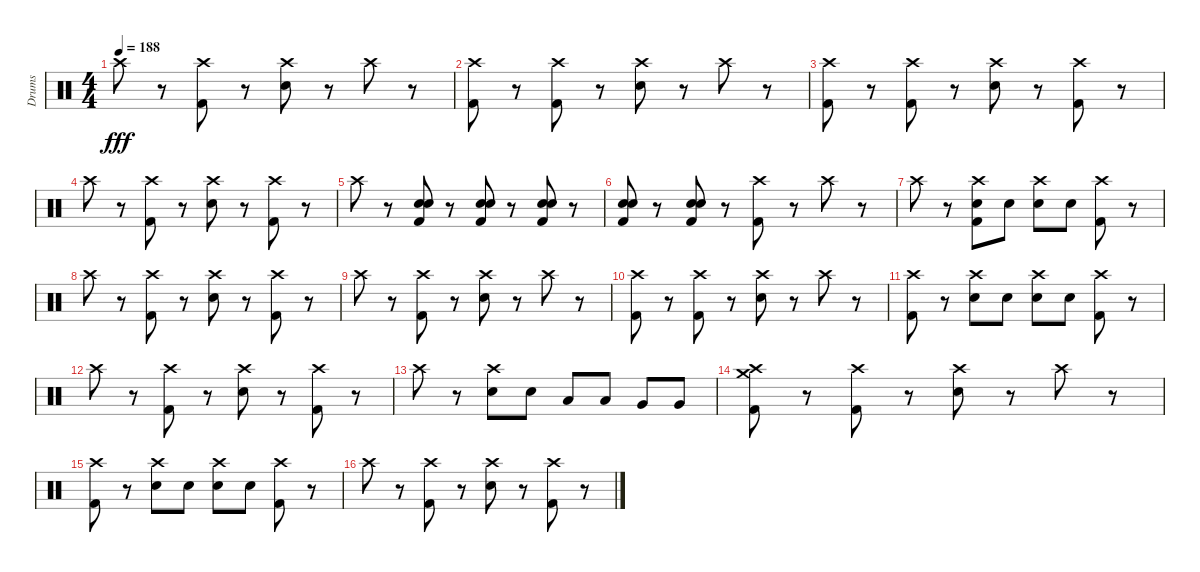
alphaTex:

\track ("Drums" "Drums") {instrument percussion}
\staff {score}
\articulation defaults
\ts (4 4)
\tempo 188
\clef neutral
\ks c "Crash high (hit)".8{dy fff}
r.8 ("Crash high (hit)" "Kick (hit) 2").8 r.8 ("Crash high (hit)" "Electric Snare (hit)").8 r.8 "Crash high (hit)".8 r.8 |
("Crash high (hit)" "Kick (hit) 2").8 r.8 ("Crash high (hit)" "Kick (hit) 2").8 r.8 ("Crash high (hit)" "Electric Snare (hit)").8 r.8 "Crash high (hit)".8 r.8 |
("Crash high (hit)" "Kick (hit) 2").8 r.8 ("Crash high (hit)" "Kick (hit) 2").8 r.8 ("Crash high (hit)" "Electric Snare (hit)").8 r.8 ("Crash high (hit)" "Kick (hit) 2").8 r.8 |
"Crash high (hit)".8 r.8 ("Crash high (hit)" "Kick (hit) 2").8 r.8 ("Crash high (hit)" "Electric Snare (hit)").8 r.8 ("Crash high (hit)" "Kick (hit) 2").8 r.8 |
"Crash high (hit)".8 r.8 ("Electric Snare (hit)" "Electric Snare (hit)" "Kick (hit) 2").8 r.8 ("Electric Snare (hit)" "Electric Snare (hit)" "Kick (hit) 2").8 r.8 ("Electric Snare (hit)" "Electric Snare (hit)" "Kick (hit) 2").8 r.8 |
("Electric Snare (hit)" "Electric Snare (hit)" "Kick (hit) 2").8 r.8 ("Electric Snare (hit)" "Electric Snare (hit)" "Kick (hit) 2").8 r.8 ("Crash high (hit)" "Kick (hit) 2").8 r.8 "Crash high (hit)".8 r.8 |
"Crash high (hit)".8 r.8 ("Crash high (hit)" "Electric Snare (hit)" "Kick (hit) 2").8 "Electric Snare (hit)".8 ("Crash high (hit)" "Electric Snare (hit)").8 "Electric Snare (hit)".8 ("Crash high (hit)" "Kick (hit) 2").8 r.8 |
"Crash high (hit)".8 r.8 ("Crash high (hit)" "Kick (hit) 2").8 r.8 ("Crash high (hit)" "Electric Snare (hit)").8 r.8 ("Crash high (hit)" "Kick (hit) 2").8 r.8 |
"Crash high (hit)".8 r.8 ("Crash high (hit)" "Kick (hit) 2").8 r.8 ("Crash high (hit)" "Electric Snare (hit)").8 r.8 "Crash high (hit)".8 r.8 |
("Crash high (hit)" "Kick (hit) 2").8 r.8 ("Crash high (hit)" "Kick (hit) 2").8 r.8 ("Crash high (hit)" "Electric Snare (hit)").8 r.8 "Crash high (hit)".8 r.8 |
("Crash high (hit)" "Kick (hit) 2").8 r.8 ("Crash high (hit)" "Electric Snare (hit)").8 "Electric Snare (hit)".8 ("Crash high (hit)" "Electric Snare (hit)").8 "Electric Snare (hit)".8 ("Crash high (hit)" "Kick (hit) 2").8 r.8 |
"Crash high (hit)".8 r.8 ("Crash high (hit)" "Kick (hit) 2").8 r.8 ("Crash high (hit)" "Electric Snare (hit)").8 r.8 ("Crash high (hit)" "Kick (hit) 2").8 r.8 |
"Crash high (hit)".8 r.8 ("Crash high (hit)" "Electric Snare (hit)").8 "Electric Snare (hit)".8 "Low Tom (hit)".8 "Low Tom (hit)".8 "Very Low Tom (hit)".8 "Very Low Tom (hit)".8 |
("Crash medium (hit)" "Crash high (hit)" "Kick (hit) 2").8 r.8 ("Crash high (hit)" "Kick (hit) 2").8 r.8 ("Crash high (hit)" "Electric Snare (hit)").8 r.8 "Crash high (hit)".8 r.8 |
("Crash high (hit)" "Kick (hit) 2").8 r.8 ("Crash high (hit)" "Electric Snare (hit)").8 "Electric Snare (hit)".8 ("Crash high (hit)" "Electric Snare (hit)").8 "Electric Snare (hit)".8 ("Crash high (hit)" "Kick (hit) 2").8 r.8 |
"Crash high (hit)".8 r.8 ("Crash high (hit)" "Kick (hit) 2").8 r.8 ("Crash high (hit)" "Electric Snare (hit)").8 r.8 ("Crash high (hit)" "Kick (hit) 2").8 r.8
